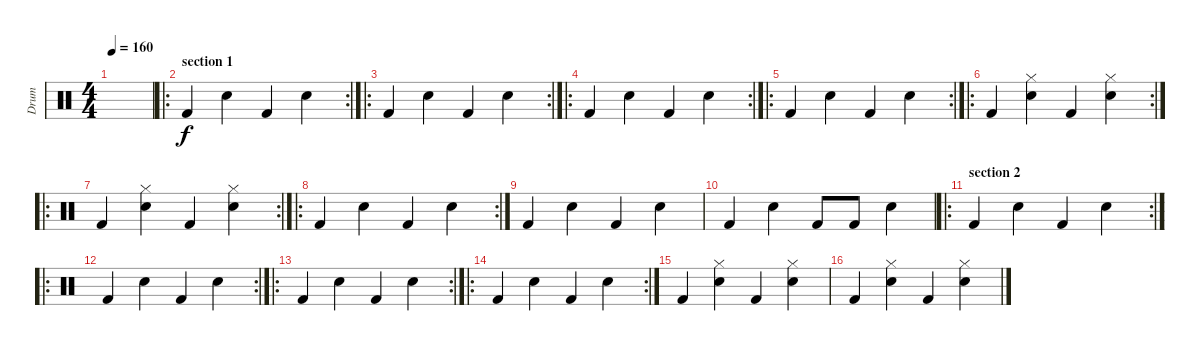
\track ("Drum" "Drum") {instrument percussion}
\staff {score}
\articulation defaults
\ts (4 4)
\tempo 160
\clef neutral
\ks c
|
\ro
\rc 2
\section ("" "section 1  ")
"Kick (hit) 2".4 "Snare (hit) 2".4 "Kick (hit) 2".4 "Snare (hit) 2".4 |
\ro
\rc 2 "Kick (hit) 2".4 "Snare (hit) 2".4 "Kick (hit) 2".4 "Snare (hit) 2".4
|
\ro
\rc 2 "Kick (hit) 2".4 "Snare (hit) 2".4 "Kick (hit) 2".4 "Snare (hit) 2".4
|
\ro
\rc 2 "Kick (hit) 2".4 "Snare (hit) 2".4 "Kick (hit) 2".4 "Snare (hit) 2".4
|
\ro
\rc 2 "Kick (hit) 2".4
("Snare (hit) 2" "Hi-Hat (closed)").4 "Kick (hit) 2".4 ("Snare (hit) 2" "Hi-Hat (closed)").4 |
\ro
\rc 2 "Kick (hit) 2".4
("Snare (hit) 2" "Hi-Hat (closed)").4 "Kick (hit) 2".4 ("Snare (hit) 2" "Hi-Hat (closed)").4 |
\ro
\rc 2 "Kick (hit) 2".4 "Snare (hit) 2".4 "Kick (hit) 2".4 "Snare (hit) 2".4
|
"Kick (hit) 2".4 "Snare (hit) 2".4 "Kick (hit) 2".4 "Snare (hit) 2".4 |
"Kick (hit) 2".4 "Snare (hit) 2".4 "Kick (hit) 2".8 "Kick (hit) 2".8 "Snare (hit) 2".4 |
\ro
\rc 2
\section ("" "section 2  ")
"Kick (hit) 2".4 "Snare (hit) 2".4 "Kick (hit) 2".4 "Snare (hit) 2".4 |
\ro
\rc 2 "Kick (hit) 2".4 "Snare (hit) 2".4 "Kick (hit) 2".4 "Snare (hit) 2".4
|
\ro
\rc 2 "Kick (hit) 2".4 "Snare (hit) 2".4 "Kick (hit) 2".4 "Snare (hit) 2".4
|
\ro
\rc 2 "Kick (hit) 2".4 "Snare (hit) 2".4 "Kick (hit) 2".4 "Snare (hit) 2".4
|
"Kick (hit) 2".4 ("Snare (hit) 2" "Hi-Hat (closed)").4 "Kick (hit) 2".4 ("Snare (hit) 2" "Hi-Hat (closed)").4 |
"Kick (hit) 2".4 ("Snare (hit) 2" "Hi-Hat (closed)").4 "Kick (hit) 2".4 ("Snare (hit) 2" "Hi-Hat (closed)").4
